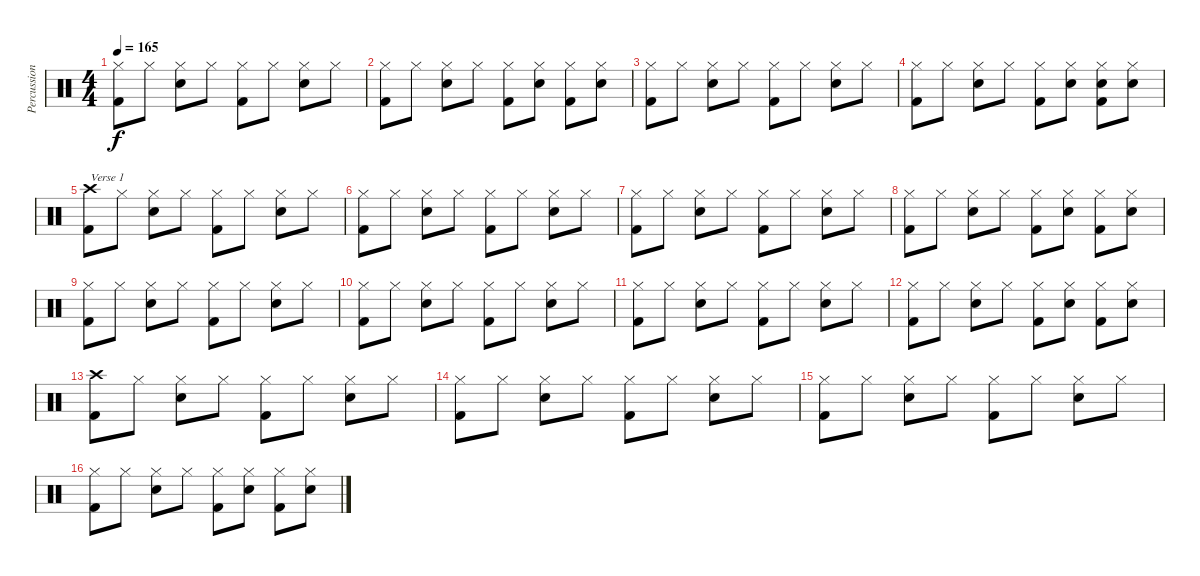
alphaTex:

\track ("Percussion" "Percussion") {instrument percussion}
\staff {score}
\articulation defaults
\ts (4 4)
\tempo 165
\clef neutral
\ks c
("Hi-Hat (closed)" "Kick (hit) 2").8{dy f} "Hi-Hat (closed)".8 ("Hi-Hat (closed)" "Snare (hit) 2").8 "Hi-Hat (closed)".8 ("Hi-Hat (closed)" "Kick (hit) 2").8 "Hi-Hat (closed)".8 ("Hi-Hat (closed)" "Snare (hit) 2").8 "Hi-Hat (closed)".8 |
("Hi-Hat (closed)" "Kick (hit) 2").8 "Hi-Hat (closed)".8 ("Hi-Hat (closed)" "Snare (hit) 2").8 "Hi-Hat (closed)".8 ("Hi-Hat (closed)" "Kick (hit) 2").8 ("Hi-Hat (closed)" "Snare (hit) 2").8 ("Hi-Hat (closed)" "Kick (hit) 2").8 ("Hi-Hat (closed)" "Snare (hit) 2").8 |
("Hi-Hat (closed)" "Kick (hit) 2").8 "Hi-Hat (closed)".8 ("Hi-Hat (closed)" "Snare (hit) 2").8 "Hi-Hat (closed)".8 ("Hi-Hat (closed)" "Kick (hit) 2").8 "Hi-Hat (closed)".8 ("Hi-Hat (closed)" "Snare (hit) 2").8 "Hi-Hat (closed)".8 |
("Hi-Hat (closed)" "Kick (hit) 2").8 "Hi-Hat (closed)".8 ("Hi-Hat (closed)" "Snare (hit) 2").8 "Hi-Hat (closed)".8 ("Hi-Hat (closed)" "Kick (hit) 2").8 ("Hi-Hat (closed)" "Snare (hit) 2").8 ("Hi-Hat (closed)" "Snare (hit) 2" "Kick (hit) 2").8 ("Hi-Hat (closed)" "Snare (hit) 2").8 |
("Crash high (hit)" "Kick (hit) 2").8{txt "Verse 1"} "Hi-Hat (closed)".8 ("Hi-Hat (closed)" "Snare (hit) 2").8 "Hi-Hat (closed)".8 ("Hi-Hat (closed)" "Kick (hit) 2").8 "Hi-Hat (closed)".8 ("Hi-Hat (closed)" "Snare (hit) 2").8 "Hi-Hat (closed)".8 |
("Hi-Hat (closed)" "Kick (hit) 2").8 "Hi-Hat (closed)".8 ("Hi-Hat (closed)" "Snare (hit) 2").8 "Hi-Hat (closed)".8 ("Hi-Hat (closed)" "Kick (hit) 2").8 "Hi-Hat (closed)".8 ("Hi-Hat (closed)" "Snare (hit) 2").8 "Hi-Hat (closed)".8 |
("Hi-Hat (closed)" "Kick (hit) 2").8 "Hi-Hat (closed)".8 ("Hi-Hat (closed)" "Snare (hit) 2").8 "Hi-Hat (closed)".8 ("Hi-Hat (closed)" "Kick (hit) 2").8 "Hi-Hat (closed)".8 ("Hi-Hat (closed)" "Snare (hit) 2").8 "Hi-Hat (closed)".8 |
("Hi-Hat (closed)" "Kick (hit) 2").8 "Hi-Hat (closed)".8 ("Hi-Hat (closed)" "Snare (hit) 2").8 "Hi-Hat (closed)".8 ("Hi-Hat (closed)" "Kick (hit) 2").8 ("Hi-Hat (closed)" "Snare (hit) 2").8 ("Hi-Hat (closed)" "Kick (hit) 2").8 ("Hi-Hat (closed)" "Snare (hit) 2").8 |
("Hi-Hat (closed)" "Kick (hit) 2").8 "Hi-Hat (closed)".8 ("Hi-Hat (closed)" "Snare (hit) 2").8 "Hi-Hat (closed)".8 ("Hi-Hat (closed)" "Kick (hit) 2").8 "Hi-Hat (closed)".8 ("Hi-Hat (closed)" "Snare (hit) 2").8 "Hi-Hat (closed)".8 |
("Hi-Hat (closed)" "Kick (hit) 2").8 "Hi-Hat (closed)".8 ("Hi-Hat (closed)" "Snare (hit) 2").8 "Hi-Hat (closed)".8 ("Hi-Hat (closed)" "Kick (hit) 2").8 "Hi-Hat (closed)".8 ("Hi-Hat (closed)" "Snare (hit) 2").8 "Hi-Hat (closed)".8 |
("Hi-Hat (closed)" "Kick (hit) 2").8 "Hi-Hat (closed)".8 ("Hi-Hat (closed)" "Snare (hit) 2").8 "Hi-Hat (closed)".8 ("Hi-Hat (closed)" "Kick (hit) 2").8 "Hi-Hat (closed)".8 ("Hi-Hat (closed)" "Snare (hit) 2").8 "Hi-Hat (closed)".8 |
("Hi-Hat (closed)" "Kick (hit) 2").8 "Hi-Hat (closed)".8 ("Hi-Hat (closed)" "Snare (hit) 2").8 "Hi-Hat (closed)".8 ("Hi-Hat (closed)" "Kick (hit) 2").8 ("Hi-Hat (closed)" "Snare (hit) 2").8 ("Hi-Hat (closed)" "Kick (hit) 2").8 ("Hi-Hat (closed)" "Snare (hit) 2").8 |
("Crash high (hit)" "Kick (hit) 2").8 "Hi-Hat (closed)".8 ("Hi-Hat (closed)" "Snare (hit) 2").8 "Hi-Hat (closed)".8 ("Hi-Hat (closed)" "Kick (hit) 2").8 "Hi-Hat (closed)".8 ("Hi-Hat (closed)" "Snare (hit) 2").8 "Hi-Hat (closed)".8 |
("Hi-Hat (closed)" "Kick (hit) 2").8 "Hi-Hat (closed)".8 ("Hi-Hat (closed)" "Snare (hit) 2").8 "Hi-Hat (closed)".8 ("Hi-Hat (closed)" "Kick (hit) 2").8 "Hi-Hat (closed)".8 ("Hi-Hat (closed)" "Snare (hit) 2").8 "Hi-Hat (closed)".8 |
("Hi-Hat (closed)" "Kick (hit) 2").8 "Hi-Hat (closed)".8 ("Hi-Hat (closed)" "Snare (hit) 2").8 "Hi-Hat (closed)".8 ("Hi-Hat (closed)" "Kick (hit) 2").8 "Hi-Hat (closed)".8 ("Hi-Hat (closed)" "Snare (hit) 2").8 "Hi-Hat (closed)".8 |
("Hi-Hat (closed)" "Kick (hit) 2").8 "Hi-Hat (closed)".8 ("Hi-Hat (closed)" "Snare (hit) 2").8 "Hi-Hat (closed)".8 ("Hi-Hat (closed)" "Kick (hit) 2").8 ("Hi-Hat (closed)" "Snare (hit) 2").8 ("Hi-Hat (closed)" "Kick (hit) 2").8 ("Hi-Hat (closed)" "Snare (hit) 2").8
